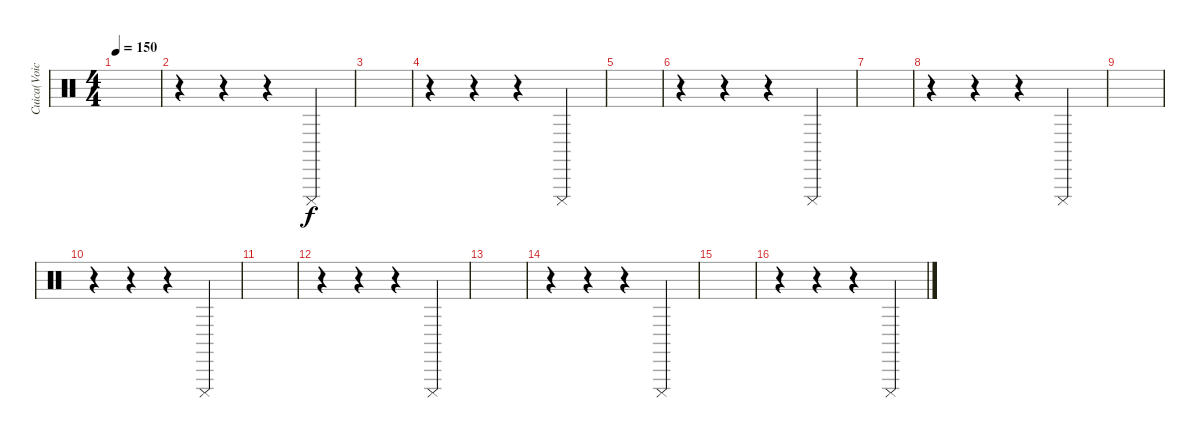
\track ("Cuica(Voice)" "Cuica(Voic") {instrument percussion}
\staff {score}
\articulation defaults
\ts (4 4)
\tempo 150
\clef neutral
\ks c
|
r.4 r.4 r.4 "Cuica (mute)".4 |
|
r.4 r.4 r.4 "Cuica (mute)".4 |
|
r.4 r.4 r.4 "Cuica (mute)".4 |
|
r.4 r.4 r.4 "Cuica (mute)".4 |
|
r.4 r.4 r.4 "Cuica (mute)".4 |
|
r.4 r.4 r.4 "Cuica (mute)".4 |
|
r.4 r.4 r.4 "Cuica (mute)".4 |
|
r.4 r.4 r.4 "Cuica (mute)".4
